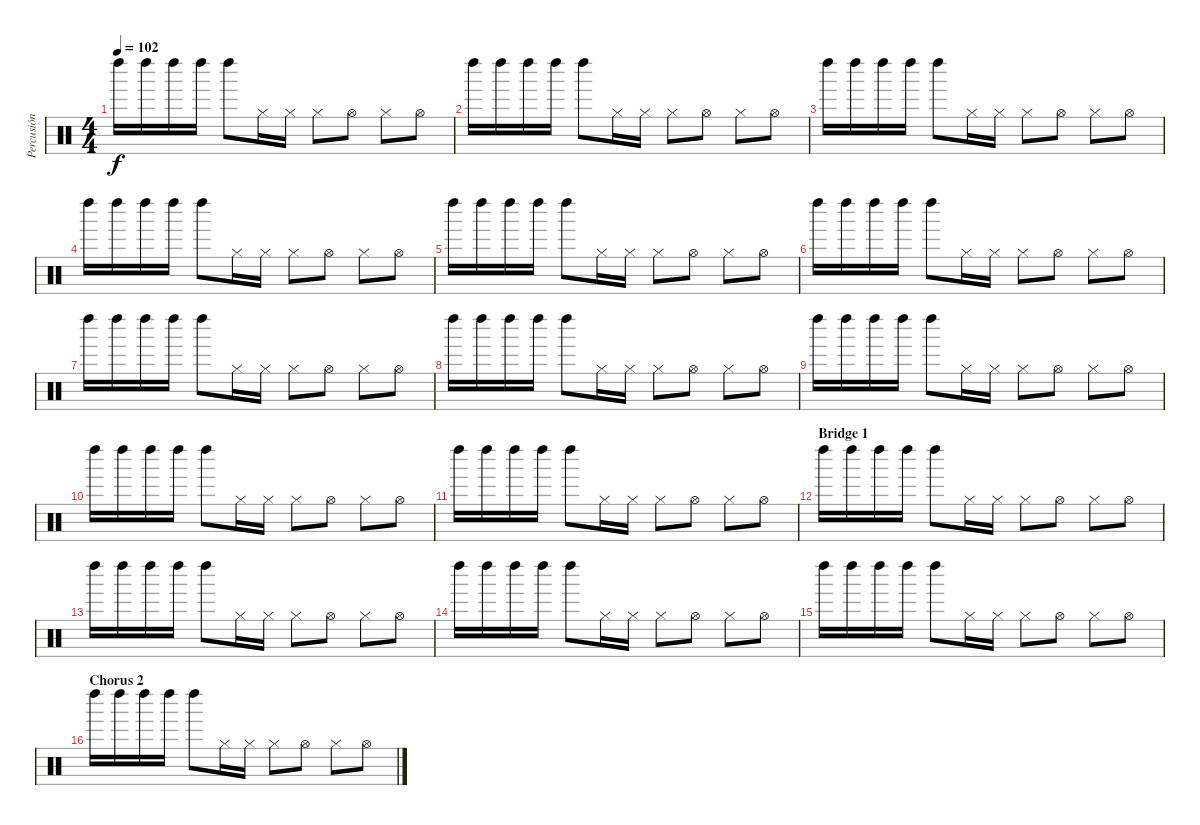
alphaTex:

\track ("Percusión" "Percusión") {instrument percussion}
\staff {score}
\articulation defaults
\ts (4 4)
\tempo 102
\clef neutral
\ks c "Left Maraca (hit)".16{dy f} "Left Maraca (hit)".16 "Left Maraca (hit)".16 "Left Maraca (hit)".16 "Left Maraca (hit)".8 "Hi-Hat (closed)".16 "Hi-Hat (closed)".16 "Hi-Hat (closed)".8 "Hi-Hat (open)".8 "Hi-Hat (closed)".8 "Hi-Hat (open)".8
|
"Left Maraca (hit)".16 "Left Maraca (hit)".16 "Left Maraca (hit)".16 "Left Maraca (hit)".16 "Left Maraca (hit)".8 "Hi-Hat (closed)".16 "Hi-Hat (closed)".16 "Hi-Hat (closed)".8 "Hi-Hat (open)".8 "Hi-Hat (closed)".8 "Hi-Hat (open)".8 |
"Left Maraca (hit)".16 "Left Maraca (hit)".16 "Left Maraca (hit)".16 "Left Maraca (hit)".16 "Left Maraca (hit)".8 "Hi-Hat (closed)".16 "Hi-Hat (closed)".16 "Hi-Hat (closed)".8 "Hi-Hat (open)".8 "Hi-Hat (closed)".8 "Hi-Hat (open)".8 |
"Left Maraca (hit)".16 "Left Maraca (hit)".16 "Left Maraca (hit)".16 "Left Maraca (hit)".16 "Left Maraca (hit)".8 "Hi-Hat (closed)".16 "Hi-Hat (closed)".16 "Hi-Hat (closed)".8 "Hi-Hat (open)".8 "Hi-Hat (closed)".8 "Hi-Hat (open)".8 |
"Left Maraca (hit)".16 "Left Maraca (hit)".16 "Left Maraca (hit)".16 "Left Maraca (hit)".16 "Left Maraca (hit)".8 "Hi-Hat (closed)".16 "Hi-Hat (closed)".16 "Hi-Hat (closed)".8 "Hi-Hat (open)".8 "Hi-Hat (closed)".8 "Hi-Hat (open)".8 |
"Left Maraca (hit)".16 "Left Maraca (hit)".16 "Left Maraca (hit)".16 "Left Maraca (hit)".16 "Left Maraca (hit)".8 "Hi-Hat (closed)".16 "Hi-Hat (closed)".16 "Hi-Hat (closed)".8 "Hi-Hat (open)".8 "Hi-Hat (closed)".8 "Hi-Hat (open)".8 |
"Left Maraca (hit)".16 "Left Maraca (hit)".16 "Left Maraca (hit)".16 "Left Maraca (hit)".16 "Left Maraca (hit)".8 "Hi-Hat (closed)".16 "Hi-Hat (closed)".16 "Hi-Hat (closed)".8 "Hi-Hat (open)".8 "Hi-Hat (closed)".8 "Hi-Hat (open)".8 |
"Left Maraca (hit)".16 "Left Maraca (hit)".16 "Left Maraca (hit)".16 "Left Maraca (hit)".16 "Left Maraca (hit)".8 "Hi-Hat (closed)".16 "Hi-Hat (closed)".16 "Hi-Hat (closed)".8 "Hi-Hat (open)".8 "Hi-Hat (closed)".8 "Hi-Hat (open)".8 |
"Left Maraca (hit)".16 "Left Maraca (hit)".16 "Left Maraca (hit)".16 "Left Maraca (hit)".16 "Left Maraca (hit)".8 "Hi-Hat (closed)".16 "Hi-Hat (closed)".16 "Hi-Hat (closed)".8 "Hi-Hat (open)".8 "Hi-Hat (closed)".8 "Hi-Hat (open)".8 |
"Left Maraca (hit)".16 "Left Maraca (hit)".16 "Left Maraca (hit)".16 "Left Maraca (hit)".16 "Left Maraca (hit)".8 "Hi-Hat (closed)".16 "Hi-Hat (closed)".16 "Hi-Hat (closed)".8 "Hi-Hat (open)".8 "Hi-Hat (closed)".8 "Hi-Hat (open)".8 |
"Left Maraca (hit)".16 "Left Maraca (hit)".16 "Left Maraca (hit)".16 "Left Maraca (hit)".16 "Left Maraca (hit)".8 "Hi-Hat (closed)".16 "Hi-Hat (closed)".16 "Hi-Hat (closed)".8 "Hi-Hat (open)".8 "Hi-Hat (closed)".8 "Hi-Hat (open)".8 |
\section ("" "Bridge 1")
"Left Maraca (hit)".16 "Left Maraca (hit)".16 "Left Maraca (hit)".16 "Left Maraca (hit)".16 "Left Maraca (hit)".8 "Hi-Hat (closed)".16 "Hi-Hat (closed)".16 "Hi-Hat (closed)".8 "Hi-Hat (open)".8 "Hi-Hat (closed)".8 "Hi-Hat (open)".8 |
"Left Maraca (hit)".16 "Left Maraca (hit)".16 "Left Maraca (hit)".16 "Left Maraca (hit)".16 "Left Maraca (hit)".8 "Hi-Hat (closed)".16 "Hi-Hat (closed)".16 "Hi-Hat (closed)".8 "Hi-Hat (open)".8 "Hi-Hat (closed)".8 "Hi-Hat (open)".8 |
"Left Maraca (hit)".16 "Left Maraca (hit)".16 "Left Maraca (hit)".16 "Left Maraca (hit)".16 "Left Maraca (hit)".8 "Hi-Hat (closed)".16 "Hi-Hat (closed)".16 "Hi-Hat (closed)".8 "Hi-Hat (open)".8 "Hi-Hat (closed)".8 "Hi-Hat (open)".8 |
"Left Maraca (hit)".16 "Left Maraca (hit)".16 "Left Maraca (hit)".16 "Left Maraca (hit)".16 "Left Maraca (hit)".8 "Hi-Hat (closed)".16 "Hi-Hat (closed)".16 "Hi-Hat (closed)".8 "Hi-Hat (open)".8 "Hi-Hat (closed)".8 "Hi-Hat (open)".8 |
\section ("" "Chorus 2")
"Left Maraca (hit)".16 "Left Maraca (hit)".16 "Left Maraca (hit)".16 "Left Maraca (hit)".16 "Left Maraca (hit)".8 "Hi-Hat (closed)".16 "Hi-Hat (closed)".16 "Hi-Hat (closed)".8 "Hi-Hat (open)".8 "Hi-Hat (closed)".8 "Hi-Hat (open)".8
